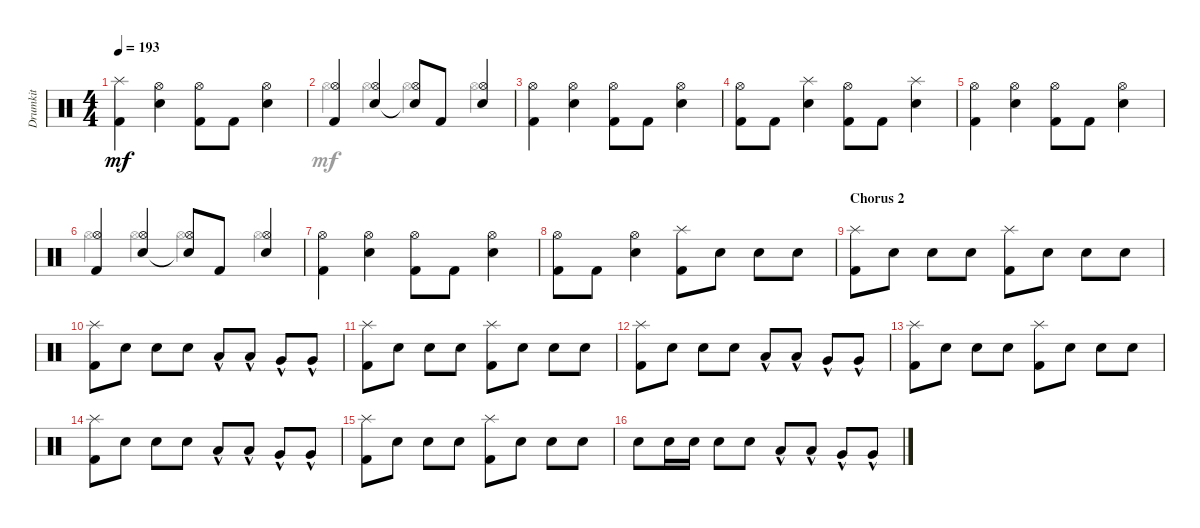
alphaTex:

\track ("Drumkit" "Drumkit") {instrument percussion}
\staff {score}
\articulation defaults
\voice
\ts (4 4)
\tempo 193
\clef neutral
\ks c
("Kick (hit) 2" "Splash (hit)").4{dy mf} ("Snare (hit) 2" "Hi-Hat (open)").4 ("Kick (hit) 2" "Hi-Hat (open)").8 "Kick (hit) 2".8 ("Snare (hit) 2" "Hi-Hat (open)").4 |
("Kick (hit) 2" "Hi-Hat (open)").4 ("Snare (hit) 2" "Hi-Hat (open)").4 ("Snare (hit) 2"{t} "Hi-Hat (open)").8 "Kick (hit) 2".8 ("Snare (hit) 2" "Hi-Hat (open)").4 |
("Kick (hit) 2" "Hi-Hat (open)").4 ("Snare (hit) 2" "Hi-Hat (open)").4 ("Kick (hit) 2" "Hi-Hat (open)").8 "Kick (hit) 2".8 ("Snare (hit) 2" "Hi-Hat (open)").4 |
("Kick (hit) 2" "Hi-Hat (open)").8 "Kick (hit) 2".8 ("Snare (hit) 2" "Splash (hit)").4 ("Kick (hit) 2" "Hi-Hat (open)").8 "Kick (hit) 2".8 ("Snare (hit) 2" "Splash (hit)").4 |
("Kick (hit) 2" "Hi-Hat (open)").4 ("Snare (hit) 2" "Hi-Hat (open)").4 ("Kick (hit) 2" "Hi-Hat (open)").8 "Kick (hit) 2".8 ("Snare (hit) 2" "Hi-Hat (open)").4 |
("Kick (hit) 2" "Hi-Hat (open)").4 ("Snare (hit) 2" "Hi-Hat (open)").4 ("Snare (hit) 2"{t} "Hi-Hat (open)").8 "Kick (hit) 2".8 ("Snare (hit) 2" "Hi-Hat (open)").4 |
("Kick (hit) 2" "Hi-Hat (open)").4 ("Snare (hit) 2" "Hi-Hat (open)").4 ("Kick (hit) 2" "Hi-Hat (open)").8 "Kick (hit) 2".8 ("Snare (hit) 2" "Hi-Hat (open)").4 |
("Kick (hit) 2" "Hi-Hat (open)").8 "Kick (hit) 2".8 ("Snare (hit) 2" "Hi-Hat (open)").4 ("Kick (hit) 2" "Splash (hit)").8 "Snare (hit) 2".8 "Snare (hit) 2".8 "Snare (hit) 2".8 |
\section ("" "Chorus 2")
("Kick (hit) 2" "Splash (hit)").8 "Snare (hit) 2".8 "Snare (hit) 2".8 "Snare (hit) 2".8 ("Kick (hit) 2" "Splash (hit)").8 "Snare (hit) 2".8 "Snare (hit) 2".8 "Snare (hit) 2".8 |
("Kick (hit) 2" "Splash (hit)").8 "Snare (hit) 2".8 "Snare (hit) 2".8 "Snare (hit) 2".8 "Low Tom (hit)"{hac}.8 "Low Tom (hit)"{hac}.8 "Very Low Tom (hit)"{hac}.8 "Very Low Tom (hit)"{hac}.8 |
("Kick (hit) 2" "Splash (hit)").8 "Snare (hit) 2".8 "Snare (hit) 2".8 "Snare (hit) 2".8 ("Kick (hit) 2" "Splash (hit)").8 "Snare (hit) 2".8 "Snare (hit) 2".8 "Snare (hit) 2".8 |
("Kick (hit) 2" "Splash (hit)").8 "Snare (hit) 2".8 "Snare (hit) 2".8 "Snare (hit) 2".8 "Low Tom (hit)"{hac}.8 "Low Tom (hit)"{hac}.8 "Very Low Tom (hit)"{hac}.8 "Very Low Tom (hit)"{hac}.8 |
("Kick (hit) 2" "Splash (hit)").8 "Snare (hit) 2".8 "Snare (hit) 2".8 "Snare (hit) 2".8 ("Kick (hit) 2" "Splash (hit)").8 "Snare (hit) 2".8 "Snare (hit) 2".8 "Snare (hit) 2".8 |
("Kick (hit) 2" "Splash (hit)").8 "Snare (hit) 2".8 "Snare (hit) 2".8 "Snare (hit) 2".8 "Low Tom (hit)"{hac}.8 "Low Tom (hit)"{hac}.8 "Very Low Tom (hit)"{hac}.8 "Very Low Tom (hit)"{hac}.8 |
("Kick (hit) 2" "Splash (hit)").8 "Snare (hit) 2".8 "Snare (hit) 2".8 "Snare (hit) 2".8 ("Kick (hit) 2" "Splash (hit)").8 "Snare (hit) 2".8 "Snare (hit) 2".8 "Snare (hit) 2".8 |
"Snare (hit) 2".8 "Snare (hit) 2".16 "Snare (hit) 2".16 "Snare (hit) 2".8 "Snare (hit) 2".8 "Low Tom (hit)"{hac}.8 "Low Tom (hit)"{hac}.8 "Very Low Tom (hit)"{hac}.8 "Very Low Tom (hit)"{hac}.8
\voice
\clef neutral
\ottava regular
\simile none
\ks c
|
"Hi-Hat (open)".4 "Hi-Hat (open)".4 "Hi-Hat (open)".4 "Hi-Hat (open)".4 |
|
|
|
"Hi-Hat (open)".4 "Hi-Hat (open)".4 "Hi-Hat (open)".4 "Hi-Hat (open)".4 |
|
|
|
|
|
|
|
|
|
